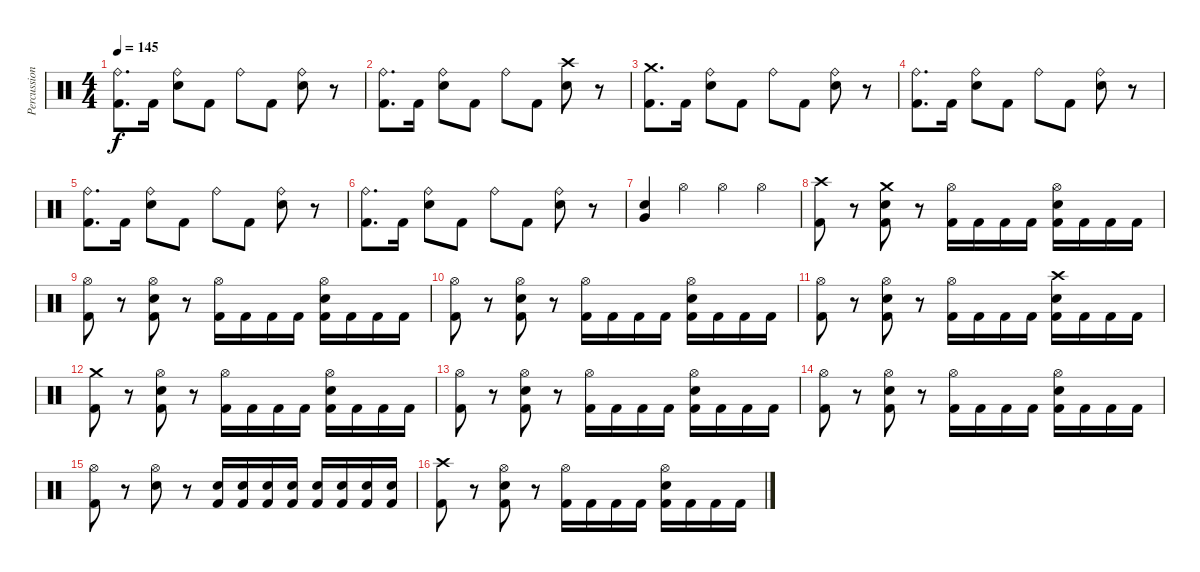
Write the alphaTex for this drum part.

\track ("Percussion" "Percussion") {instrument percussion}
\staff {score}
\articulation defaults
\ts (4 4)
\tempo 145
\clef neutral
\ks c
("Ride (bell)" "Kick (hit) 2").8{d dy f} "Kick (hit) 2".16 ("Ride (bell)" "Snare (hit) 2").8 "Kick (hit) 2".8 "Ride (bell)".8 "Kick (hit) 2".8 ("Ride (bell)" "Snare (hit) 2").8 r.8 |
("Ride (bell)" "Kick (hit) 2").8{d} "Kick (hit) 2".16 ("Ride (bell)" "Snare (hit) 2").8 "Kick (hit) 2".8 "Ride (bell)".8 "Kick (hit) 2".8 ("Crash high (hit)" "Snare (hit) 2").8 r.8 |
("Crash medium (hit)" "Kick (hit) 2").8{d} "Kick (hit) 2".16 ("Ride (bell)" "Snare (hit) 2").8 "Kick (hit) 2".8 "Ride (bell)".8 "Kick (hit) 2".8 ("Ride (bell)" "Snare (hit) 2").8 r.8 |
("Ride (bell)" "Kick (hit) 2").8{d} "Kick (hit) 2".16 ("Ride (bell)" "Snare (hit) 2").8 "Kick (hit) 2".8 "Ride (bell)".8 "Kick (hit) 2".8 ("Ride (bell)" "Snare (hit) 2").8 r.8 |
("Ride (bell)" "Kick (hit) 2").8{d} "Kick (hit) 2".16 ("Ride (bell)" "Snare (hit) 2").8 "Kick (hit) 2".8 "Ride (bell)".8 "Kick (hit) 2".8 ("Ride (bell)" "Snare (hit) 2").8 r.8 |
("Ride (bell)" "Kick (hit) 2").8{d} "Kick (hit) 2".16 ("Ride (bell)" "Snare (hit) 2").8 "Kick (hit) 2".8 "Ride (bell)".8 "Kick (hit) 2".8 ("Ride (bell)" "Snare (hit) 2").8 r.8 |
("Very Low Tom (hit)" "Snare (hit) 2").4 "Hi-Hat (open)".4 "Hi-Hat (open)".4 "Hi-Hat (open)".4 |
("Crash high (hit)" "Kick (hit) 2").8 r.8 ("Crash medium (hit)" "Snare (hit) 2" "Kick (hit) 2").8 r.8 ("Hi-Hat (open)" "Kick (hit) 2").16 "Kick (hit) 2".16 "Kick (hit) 2".16 "Kick (hit) 2".16 ("Hi-Hat (open)" "Snare (hit) 2" "Kick (hit) 2").16 "Kick (hit) 2".16 "Kick (hit) 2".16 "Kick (hit) 2".16 |
("Hi-Hat (open)" "Kick (hit) 2").8 r.8 ("Hi-Hat (open)" "Snare (hit) 2" "Kick (hit) 2").8 r.8 ("Hi-Hat (open)" "Kick (hit) 2").16 "Kick (hit) 2".16 "Kick (hit) 2".16 "Kick (hit) 2".16 ("Hi-Hat (open)" "Snare (hit) 2" "Kick (hit) 2").16 "Kick (hit) 2".16 "Kick (hit) 2".16 "Kick (hit) 2".16 |
("Hi-Hat (open)" "Kick (hit) 2").8 r.8 ("Hi-Hat (open)" "Snare (hit) 2" "Kick (hit) 2").8 r.8 ("Hi-Hat (open)" "Kick (hit) 2").16 "Kick (hit) 2".16 "Kick (hit) 2".16 "Kick (hit) 2".16 ("Hi-Hat (open)" "Snare (hit) 2" "Kick (hit) 2").16 "Kick (hit) 2".16 "Kick (hit) 2".16 "Kick (hit) 2".16 |
("Hi-Hat (open)" "Kick (hit) 2").8 r.8 ("Hi-Hat (open)" "Snare (hit) 2" "Kick (hit) 2").8 r.8 ("Hi-Hat (open)" "Kick (hit) 2").16 "Kick (hit) 2".16 "Kick (hit) 2".16 "Kick (hit) 2".16 ("Crash high (hit)" "Snare (hit) 2" "Kick (hit) 2").16 "Kick (hit) 2".16 "Kick (hit) 2".16 "Kick (hit) 2".16 |
("Crash medium (hit)" "Kick (hit) 2").8 r.8 ("Hi-Hat (open)" "Snare (hit) 2" "Kick (hit) 2").8 r.8 ("Hi-Hat (open)" "Kick (hit) 2").16 "Kick (hit) 2".16 "Kick (hit) 2".16 "Kick (hit) 2".16 ("Hi-Hat (open)" "Snare (hit) 2" "Kick (hit) 2").16 "Kick (hit) 2".16 "Kick (hit) 2".16 "Kick (hit) 2".16 |
("Hi-Hat (open)" "Kick (hit) 2").8 r.8 ("Hi-Hat (open)" "Snare (hit) 2" "Kick (hit) 2").8 r.8 ("Hi-Hat (open)" "Kick (hit) 2").16 "Kick (hit) 2".16 "Kick (hit) 2".16 "Kick (hit) 2".16 ("Hi-Hat (open)" "Snare (hit) 2" "Kick (hit) 2").16 "Kick (hit) 2".16 "Kick (hit) 2".16 "Kick (hit) 2".16 |
("Hi-Hat (open)" "Kick (hit) 2").8 r.8 ("Hi-Hat (open)" "Snare (hit) 2" "Kick (hit) 2").8 r.8 ("Hi-Hat (open)" "Kick (hit) 2").16 "Kick (hit) 2".16 "Kick (hit) 2".16 "Kick (hit) 2".16 ("Hi-Hat (open)" "Snare (hit) 2" "Kick (hit) 2").16 "Kick (hit) 2".16 "Kick (hit) 2".16 "Kick (hit) 2".16 |
("Hi-Hat (open)" "Kick (hit) 2").8 r.8 ("Hi-Hat (open)" "Snare (hit) 2").8 r.8 ("Snare (hit) 2" "Kick (hit) 2").16 ("Snare (hit) 2" "Kick (hit) 2").16 ("Snare (hit) 2" "Kick (hit) 2").16 ("Snare (hit) 2" "Kick (hit) 2").16 ("Snare (hit) 2" "Kick (hit) 2").16 ("Snare (hit) 2" "Kick (hit) 2").16 ("Snare (hit) 2" "Kick (hit) 2").16 ("Snare (hit) 2" "Kick (hit) 2").16 |
("Crash high (hit)" "Kick (hit) 2").8 r.8 ("Hi-Hat (open)" "Snare (hit) 2" "Kick (hit) 2").8 r.8 ("Hi-Hat (open)" "Kick (hit) 2").16 "Kick (hit) 2".16 "Kick (hit) 2".16 "Kick (hit) 2".16 ("Hi-Hat (open)" "Snare (hit) 2" "Kick (hit) 2").16 "Kick (hit) 2".16 "Kick (hit) 2".16 "Kick (hit) 2".16
